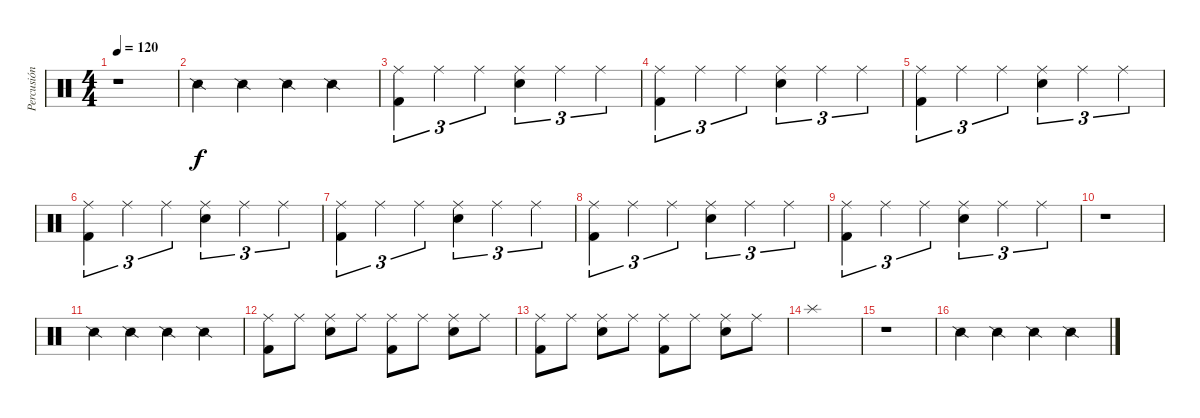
\track ("Percusión" "Percusión") {instrument percussion}
\staff {score}
\articulation defaults
\ts (4 4)
\tempo 120
\clef neutral
\ks c
r.1{dy f} |
"Snare (side stick) 2".4 "Snare (side stick) 2".4 "Snare (side stick) 2".4 "Snare (side stick) 2".4 |
("Kick (hit) 2" "Ride (middle)").4{tu (3 2)} "Ride (middle)".4{tu (3 2)} "Ride (middle)".4{tu (3 2)} ("Snare (hit) 2" "Ride (middle)").4{tu (3 2)} "Ride (middle)".4{tu (3 2)} "Ride (middle)".4{tu (3 2)} |
("Kick (hit) 2" "Ride (middle)").4{tu (3 2)} "Ride (middle)".4{tu (3 2)} "Ride (middle)".4{tu (3 2)} ("Snare (hit) 2" "Ride (middle)").4{tu (3 2)} "Ride (middle)".4{tu (3 2)} "Ride (middle)".4{tu (3 2)} |
("Kick (hit) 2" "Ride (middle)").4{tu (3 2)} "Ride (middle)".4{tu (3 2)} "Ride (middle)".4{tu (3 2)} ("Snare (hit) 2" "Ride (middle)").4{tu (3 2)} "Ride (middle)".4{tu (3 2)} "Ride (middle)".4{tu (3 2)} |
("Kick (hit) 2" "Ride (middle)").4{tu (3 2)} "Ride (middle)".4{tu (3 2)} "Ride (middle)".4{tu (3 2)} ("Snare (hit) 2" "Ride (middle)").4{tu (3 2)} "Ride (middle)".4{tu (3 2)} "Ride (middle)".4{tu (3 2)} |
("Kick (hit) 2" "Ride (middle)").4{tu (3 2)} "Ride (middle)".4{tu (3 2)} "Ride (middle)".4{tu (3 2)} ("Snare (hit) 2" "Ride (middle)").4{tu (3 2)} "Ride (middle)".4{tu (3 2)} "Ride (middle)".4{tu (3 2)} |
("Kick (hit) 2" "Ride (middle)").4{tu (3 2)} "Ride (middle)".4{tu (3 2)} "Ride (middle)".4{tu (3 2)} ("Snare (hit) 2" "Ride (middle)").4{tu (3 2)} "Ride (middle)".4{tu (3 2)} "Ride (middle)".4{tu (3 2)} |
("Kick (hit) 2" "Ride (middle)").4{tu (3 2)} "Ride (middle)".4{tu (3 2)} "Ride (middle)".4{tu (3 2)} ("Snare (hit) 2" "Ride (middle)").4{tu (3 2)} "Ride (middle)".4{tu (3 2)} "Ride (middle)".4{tu (3 2)} |
r.1 |
"Snare (side stick) 2".4 "Snare (side stick) 2".4 "Snare (side stick) 2".4 "Snare (side stick) 2".4 |
("Kick (hit) 2" "Ride (middle)").8 "Ride (middle)".8 ("Snare (hit) 2" "Ride (middle)").8 "Ride (middle)".8 ("Kick (hit) 2" "Ride (middle)").8 "Ride (middle)".8 ("Snare (hit) 2" "Ride (middle)").8 "Ride (middle)".8 |
("Kick (hit) 2" "Ride (middle)").8 "Ride (middle)".8 ("Snare (hit) 2" "Ride (middle)").8 "Ride (middle)".8 ("Kick (hit) 2" "Ride (middle)").8 "Ride (middle)".8 ("Snare (hit) 2" "Ride (middle)").8 "Ride (middle)".8 |
"Splash (hit)".1 |
r.1 |
"Snare (side stick) 2".4 "Snare (side stick) 2".4 "Snare (side stick) 2".4 "Snare (side stick) 2".4
